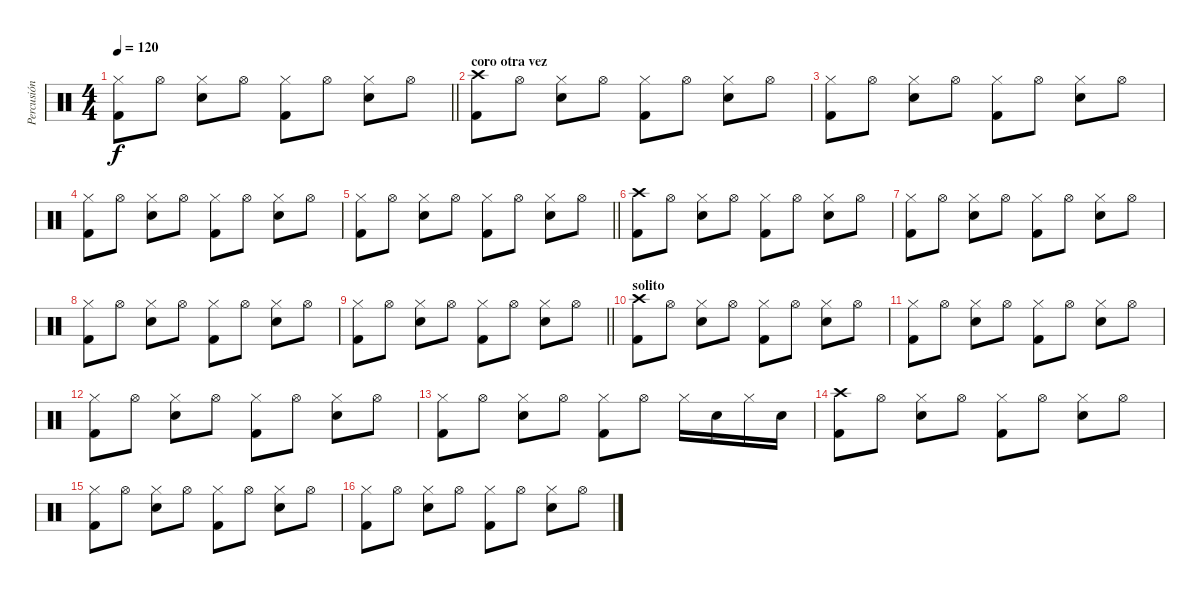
\track ("Percusión" "Percusión") {instrument percussion}
\staff {score}
\articulation defaults
\ts (4 4)
\tempo 120
\clef neutral
\barLineRight lightlight
\ks c
("Hi-Hat (closed)" "Kick (hit) 2").8{dy f} "Hi-Hat (open)".8 ("Hi-Hat (closed)" "Electric Snare (hit)").8 "Hi-Hat (open)".8 ("Hi-Hat (closed)" "Kick (hit) 2").8 "Hi-Hat (open)".8 ("Hi-Hat (closed)" "Electric Snare (hit)").8 "Hi-Hat (open)".8 |
\section ("" "coro otra vez")
("Crash high (hit)" "Kick (hit) 2").8 "Hi-Hat (open)".8 ("Hi-Hat (closed)" "Electric Snare (hit)").8 "Hi-Hat (open)".8 ("Hi-Hat (closed)" "Kick (hit) 2").8 "Hi-Hat (open)".8 ("Hi-Hat (closed)" "Electric Snare (hit)").8 "Hi-Hat (open)".8 |
("Hi-Hat (closed)" "Kick (hit) 2").8 "Hi-Hat (open)".8 ("Hi-Hat (closed)" "Electric Snare (hit)").8 "Hi-Hat (open)".8 ("Hi-Hat (closed)" "Kick (hit) 2").8 "Hi-Hat (open)".8 ("Hi-Hat (closed)" "Electric Snare (hit)").8 "Hi-Hat (open)".8 |
("Hi-Hat (closed)" "Kick (hit) 2").8 "Hi-Hat (open)".8 ("Hi-Hat (closed)" "Electric Snare (hit)").8 "Hi-Hat (open)".8 ("Hi-Hat (closed)" "Kick (hit) 2").8 "Hi-Hat (open)".8 ("Hi-Hat (closed)" "Electric Snare (hit)").8 "Hi-Hat (open)".8 |
\barLineRight lightlight
("Hi-Hat (closed)" "Kick (hit) 2").8 "Hi-Hat (open)".8 ("Hi-Hat (closed)" "Electric Snare (hit)").8 "Hi-Hat (open)".8 ("Hi-Hat (closed)" "Kick (hit) 2").8 "Hi-Hat (open)".8 ("Hi-Hat (closed)" "Electric Snare (hit)").8 "Hi-Hat (open)".8 |
("Crash high (hit)" "Kick (hit) 2").8 "Hi-Hat (open)".8 ("Hi-Hat (closed)" "Electric Snare (hit)").8 "Hi-Hat (open)".8 ("Hi-Hat (closed)" "Kick (hit) 2").8 "Hi-Hat (open)".8 ("Hi-Hat (closed)" "Electric Snare (hit)").8 "Hi-Hat (open)".8 |
("Hi-Hat (closed)" "Kick (hit) 2").8 "Hi-Hat (open)".8 ("Hi-Hat (closed)" "Electric Snare (hit)").8 "Hi-Hat (open)".8 ("Hi-Hat (closed)" "Kick (hit) 2").8 "Hi-Hat (open)".8 ("Hi-Hat (closed)" "Electric Snare (hit)").8 "Hi-Hat (open)".8 |
("Hi-Hat (closed)" "Kick (hit) 2").8 "Hi-Hat (open)".8 ("Hi-Hat (closed)" "Electric Snare (hit)").8 "Hi-Hat (open)".8 ("Hi-Hat (closed)" "Kick (hit) 2").8 "Hi-Hat (open)".8 ("Hi-Hat (closed)" "Electric Snare (hit)").8 "Hi-Hat (open)".8 |
\barLineRight lightlight
("Hi-Hat (closed)" "Kick (hit) 2").8 "Hi-Hat (open)".8 ("Hi-Hat (closed)" "Electric Snare (hit)").8 "Hi-Hat (open)".8 ("Hi-Hat (closed)" "Kick (hit) 2").8 "Hi-Hat (open)".8 ("Hi-Hat (closed)" "Electric Snare (hit)").8 "Hi-Hat (open)".8 |
\section ("" "solito")
("Crash high (hit)" "Kick (hit) 2").8 "Hi-Hat (open)".8 ("Hi-Hat (closed)" "Electric Snare (hit)").8 "Hi-Hat (open)".8 ("Hi-Hat (closed)" "Kick (hit) 2").8 "Hi-Hat (open)".8 ("Hi-Hat (closed)" "Electric Snare (hit)").8 "Hi-Hat (open)".8 |
("Hi-Hat (closed)" "Kick (hit) 2").8 "Hi-Hat (open)".8 ("Hi-Hat (closed)" "Electric Snare (hit)").8 "Hi-Hat (open)".8 ("Hi-Hat (closed)" "Kick (hit) 2").8 "Hi-Hat (open)".8 ("Hi-Hat (closed)" "Electric Snare (hit)").8 "Hi-Hat (open)".8 |
("Hi-Hat (closed)" "Kick (hit) 2").8 "Hi-Hat (open)".8 ("Hi-Hat (closed)" "Electric Snare (hit)").8 "Hi-Hat (open)".8 ("Hi-Hat (closed)" "Kick (hit) 2").8 "Hi-Hat (open)".8 ("Hi-Hat (closed)" "Electric Snare (hit)").8 "Hi-Hat (open)".8 |
("Hi-Hat (closed)" "Kick (hit) 2").8 "Hi-Hat (open)".8 ("Hi-Hat (closed)" "Electric Snare (hit)").8 "Hi-Hat (open)".8 ("Hi-Hat (closed)" "Kick (hit) 2").8 "Hi-Hat (open)".8 "Hi-Hat (closed)".16 "Electric Snare (hit)".16 "Hi-Hat (closed)".16 "Electric Snare (hit)".16 |
("Crash high (hit)" "Kick (hit) 2").8 "Hi-Hat (open)".8 ("Hi-Hat (closed)" "Electric Snare (hit)").8 "Hi-Hat (open)".8 ("Hi-Hat (closed)" "Kick (hit) 2").8 "Hi-Hat (open)".8 ("Hi-Hat (closed)" "Electric Snare (hit)").8 "Hi-Hat (open)".8 |
("Hi-Hat (closed)" "Kick (hit) 2").8 "Hi-Hat (open)".8 ("Hi-Hat (closed)" "Electric Snare (hit)").8 "Hi-Hat (open)".8 ("Hi-Hat (closed)" "Kick (hit) 2").8 "Hi-Hat (open)".8 ("Hi-Hat (closed)" "Electric Snare (hit)").8 "Hi-Hat (open)".8 |
("Hi-Hat (closed)" "Kick (hit) 2").8 "Hi-Hat (open)".8 ("Hi-Hat (closed)" "Electric Snare (hit)").8 "Hi-Hat (open)".8 ("Hi-Hat (closed)" "Kick (hit) 2").8 "Hi-Hat (open)".8 ("Hi-Hat (closed)" "Electric Snare (hit)").8 "Hi-Hat (open)".8
